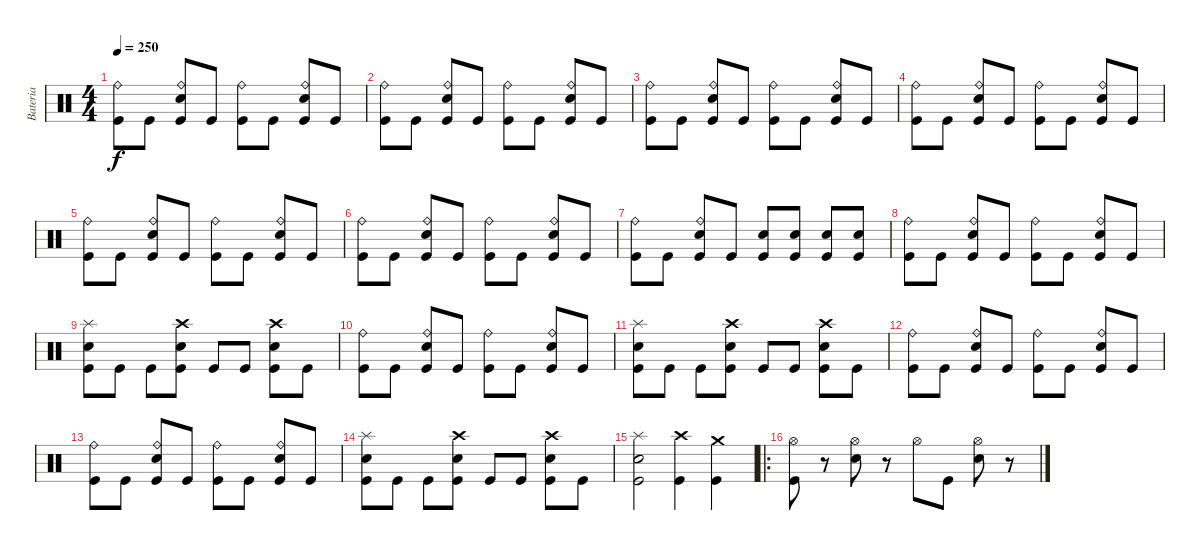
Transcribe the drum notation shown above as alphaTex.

\track ("Bateria" "Bateria") {instrument percussion}
\staff {score}
\articulation defaults
\ts (4 4)
\tempo 250
\clef neutral
\ks c
("Kick (hit)" "Ride (bell)").8{dy f} "Kick (hit)".8 ("Kick (hit)" "Electric Snare (hit)" "Ride (bell)").8 "Kick (hit)".8 ("Kick (hit)" "Ride (bell)").8 "Kick (hit)".8 ("Kick (hit)" "Electric Snare (hit)" "Ride (bell)").8 "Kick (hit)".8 |
("Kick (hit)" "Ride (bell)").8 "Kick (hit)".8 ("Kick (hit)" "Electric Snare (hit)" "Ride (bell)").8 "Kick (hit)".8 ("Kick (hit)" "Ride (bell)").8 "Kick (hit)".8 ("Kick (hit)" "Electric Snare (hit)" "Ride (bell)").8 "Kick (hit)".8 |
("Kick (hit)" "Ride (bell)").8 "Kick (hit)".8 ("Kick (hit)" "Electric Snare (hit)" "Ride (bell)").8 "Kick (hit)".8 ("Kick (hit)" "Ride (bell)").8 "Kick (hit)".8 ("Kick (hit)" "Electric Snare (hit)" "Ride (bell)").8 "Kick (hit)".8 |
("Kick (hit)" "Ride (bell)").8 "Kick (hit)".8 ("Kick (hit)" "Electric Snare (hit)" "Ride (bell)").8 "Kick (hit)".8 ("Kick (hit)" "Ride (bell)").8 "Kick (hit)".8 ("Kick (hit)" "Electric Snare (hit)" "Ride (bell)").8 "Kick (hit)".8 |
("Kick (hit)" "Ride (bell)").8 "Kick (hit)".8 ("Kick (hit)" "Electric Snare (hit)" "Ride (bell)").8 "Kick (hit)".8 ("Kick (hit)" "Ride (bell)").8 "Kick (hit)".8 ("Kick (hit)" "Electric Snare (hit)" "Ride (bell)").8 "Kick (hit)".8 |
("Kick (hit)" "Ride (bell)").8 "Kick (hit)".8 ("Kick (hit)" "Electric Snare (hit)" "Ride (bell)").8 "Kick (hit)".8 ("Kick (hit)" "Ride (bell)").8 "Kick (hit)".8 ("Kick (hit)" "Electric Snare (hit)" "Ride (bell)").8 "Kick (hit)".8 |
("Kick (hit)" "Ride (bell)").8 "Kick (hit)".8 ("Kick (hit)" "Electric Snare (hit)" "Ride (bell)").8 "Kick (hit)".8 ("Kick (hit)" "Electric Snare (hit)").8 ("Kick (hit)" "Electric Snare (hit)").8 ("Kick (hit)" "Electric Snare (hit)").8 ("Kick (hit)" "Electric Snare (hit)").8 |
("Kick (hit)" "Ride (bell)").8 "Kick (hit)".8 ("Kick (hit)" "Electric Snare (hit)" "Ride (bell)").8 "Kick (hit)".8 ("Kick (hit)" "Ride (bell)").8 "Kick (hit)".8 ("Kick (hit)" "Electric Snare (hit)" "Ride (bell)").8 "Kick (hit)".8 |
("Kick (hit)" "Electric Snare (hit)" "Splash (hit)").8 "Kick (hit)".8 "Kick (hit)".8 ("Kick (hit)" "Electric Snare (hit)" "Crash high (hit)").8 "Kick (hit)".8 "Kick (hit)".8 ("Kick (hit)" "Electric Snare (hit)" "Crash high (hit)").8 "Kick (hit)".8 |
("Kick (hit)" "Ride (bell)").8 "Kick (hit)".8 ("Kick (hit)" "Electric Snare (hit)" "Ride (bell)").8 "Kick (hit)".8 ("Kick (hit)" "Ride (bell)").8 "Kick (hit)".8 ("Kick (hit)" "Electric Snare (hit)" "Ride (bell)").8 "Kick (hit)".8 |
("Kick (hit)" "Electric Snare (hit)" "Splash (hit)").8 "Kick (hit)".8 "Kick (hit)".8 ("Kick (hit)" "Electric Snare (hit)" "Crash high (hit)").8 "Kick (hit)".8 "Kick (hit)".8 ("Kick (hit)" "Electric Snare (hit)" "Crash high (hit)").8 "Kick (hit)".8 |
("Kick (hit)" "Ride (bell)").8 "Kick (hit)".8 ("Kick (hit)" "Electric Snare (hit)" "Ride (bell)").8 "Kick (hit)".8 ("Kick (hit)" "Ride (bell)").8 "Kick (hit)".8 ("Kick (hit)" "Electric Snare (hit)" "Ride (bell)").8 "Kick (hit)".8 |
("Kick (hit)" "Ride (bell)").8 "Kick (hit)".8 ("Kick (hit)" "Electric Snare (hit)" "Ride (bell)").8 "Kick (hit)".8 ("Kick (hit)" "Ride (bell)").8 "Kick (hit)".8 ("Kick (hit)" "Electric Snare (hit)" "Ride (bell)").8 "Kick (hit)".8 |
("Kick (hit)" "Electric Snare (hit)" "Splash (hit)").8 "Kick (hit)".8 "Kick (hit)".8 ("Kick (hit)" "Electric Snare (hit)" "Crash high (hit)").8 "Kick (hit)".8 "Kick (hit)".8 ("Kick (hit)" "Electric Snare (hit)" "Crash high (hit)").8 "Kick (hit)".8 |
("Kick (hit)" "Electric Snare (hit)" "Splash (hit)").2 ("Kick (hit)" "Crash high (hit)").4 ("Kick (hit)" "Crash medium (hit)").4 |
\ro
("Kick (hit)" "Hi-Hat (open)").8 r.8 ("Electric Snare (hit)" "Hi-Hat (open)").8 r.8 "Hi-Hat (open)".8 "Kick (hit)".8 ("Electric Snare (hit)" "Hi-Hat (open)").8 r.8
